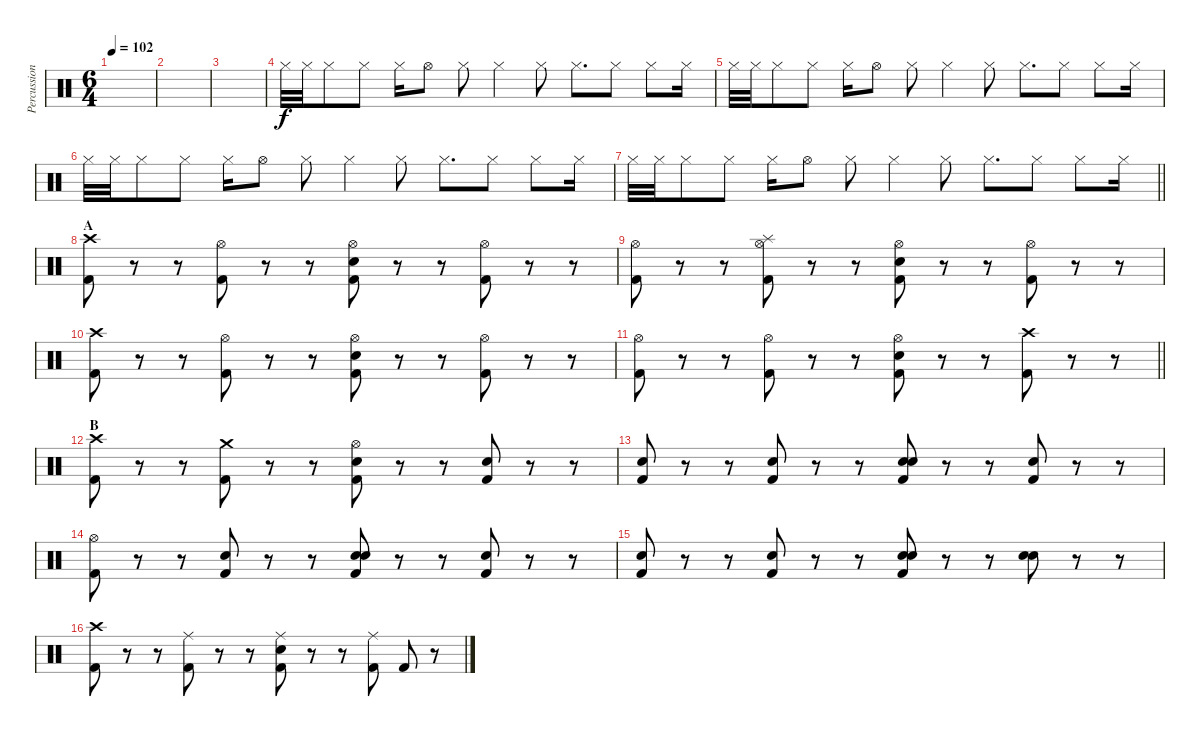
\track ("Percussion" "Percussion") {instrument percussion}
\staff {score}
\articulation defaults
\ts (6 4)
\tempo 102
\clef neutral
\ks c
|
|
|
"Hi-Hat (closed)".32{volume 6} "Hi-Hat (closed)".32 "Hi-Hat (closed)".8 "Hi-Hat (closed)".8 "Hi-Hat (closed)".16 "Hi-Hat (open)".8 "Hi-Hat (closed)".8 "Hi-Hat (closed)".4 "Hi-Hat (closed)".8 "Hi-Hat (closed)".8{d} "Hi-Hat (closed)".8 "Hi-Hat (closed)".8 "Hi-Hat (closed)".16 |
"Hi-Hat (closed)".32 "Hi-Hat (closed)".32 "Hi-Hat (closed)".8 "Hi-Hat (closed)".8 "Hi-Hat (closed)".16 "Hi-Hat (open)".8 "Hi-Hat (closed)".8 "Hi-Hat (closed)".4 "Hi-Hat (closed)".8 "Hi-Hat (closed)".8{d} "Hi-Hat (closed)".8 "Hi-Hat (closed)".8 "Hi-Hat (closed)".16 |
"Hi-Hat (closed)".32 "Hi-Hat (closed)".32 "Hi-Hat (closed)".8 "Hi-Hat (closed)".8 "Hi-Hat (closed)".16 "Hi-Hat (open)".8 "Hi-Hat (closed)".8 "Hi-Hat (closed)".4 "Hi-Hat (closed)".8 "Hi-Hat (closed)".8{d} "Hi-Hat (closed)".8 "Hi-Hat (closed)".8 "Hi-Hat (closed)".16 |
\barLineRight lightlight "Hi-Hat (closed)".32 "Hi-Hat (closed)".32 "Hi-Hat (closed)".8 "Hi-Hat (closed)".8 "Hi-Hat (closed)".16 "Hi-Hat (open)".8 "Hi-Hat (closed)".8 "Hi-Hat (closed)".4 "Hi-Hat (closed)".8 "Hi-Hat (closed)".8{d} "Hi-Hat (closed)".8 "Hi-Hat (closed)".8 "Hi-Hat (closed)".16
|
\section ("" "A")
("Crash high (hit)" "Kick (hit) 2").8{volume 13} r.8 r.8 ("Hi-Hat (open)" "Kick (hit) 2").8 r.8 r.8 ("Hi-Hat (open)" "Snare (hit) 2" "Kick (hit) 2").8 r.8 r.8 ("Hi-Hat (open)" "Kick (hit) 2").8 r.8 r.8 |
("Hi-Hat (open)" "Kick (hit) 2").8 r.8 r.8 ("Hi-Hat (open)" "Splash (hit)" "Kick (hit) 2").8 r.8 r.8 ("Hi-Hat (open)" "Snare (hit) 2" "Kick (hit) 2").8 r.8 r.8 ("Hi-Hat (open)" "Kick (hit) 2").8 r.8 r.8 |
("Crash high (hit)" "Kick (hit) 2").8 r.8 r.8 ("Hi-Hat (open)" "Kick (hit) 2").8 r.8 r.8 ("Hi-Hat (open)" "Snare (hit) 2" "Kick (hit) 2").8 r.8 r.8 ("Hi-Hat (open)" "Kick (hit) 2").8 r.8 r.8 |
\barLineRight lightlight
("Hi-Hat (open)" "Kick (hit) 2").8 r.8 r.8 ("Hi-Hat (open)" "Kick (hit) 2").8 r.8 r.8 ("Hi-Hat (open)" "Snare (hit) 2" "Kick (hit) 2").8 r.8 r.8 ("Crash high (hit)" "Kick (hit) 2").8 r.8 r.8 |
\section ("" "B")
("Crash high (hit)" "Kick (hit) 2").8 r.8 r.8 ("Crash medium (hit)" "Kick (hit) 2").8 r.8 r.8 ("Hi-Hat (open)" "Snare (hit) 2" "Kick (hit) 2").8 r.8 r.8 ("Snare (hit)" "Kick (hit) 2").8 r.8 r.8 |
("Snare (hit)" "Kick (hit) 2").8 r.8 r.8 ("Snare (hit)" "Kick (hit) 2").8 r.8 r.8 ("Snare (hit)" "Snare (hit) 2" "Kick (hit) 2").8 r.8 r.8 ("Snare (hit)" "Kick (hit) 2").8 r.8 r.8 |
("Hi-Hat (open)" "Kick (hit) 2").8 r.8 r.8 ("Snare (hit)" "Kick (hit) 2").8 r.8 r.8 ("Snare (hit)" "Snare (hit) 2" "Kick (hit) 2").8 r.8 r.8 ("Snare (hit)" "Kick (hit) 2").8 r.8 r.8 |
("Snare (hit)" "Kick (hit) 2").8 r.8 r.8 ("Snare (hit)" "Kick (hit) 2").8 r.8 r.8 ("Snare (hit)" "Snare (hit) 2" "Kick (hit) 2").8 r.8 r.8 ("Snare (hit)" "Snare (hit) 2").8 r.8 r.8 |
("Crash high (hit)" "Kick (hit) 2").8 r.8 r.8 ("Ride (middle)" "Kick (hit) 2").8 r.8 r.8 ("Ride (middle)" "Snare (hit) 2" "Kick (hit) 2").8 r.8 r.8 ("Ride (middle)" "Kick (hit) 2").8 "Kick (hit) 2".8 r.8
